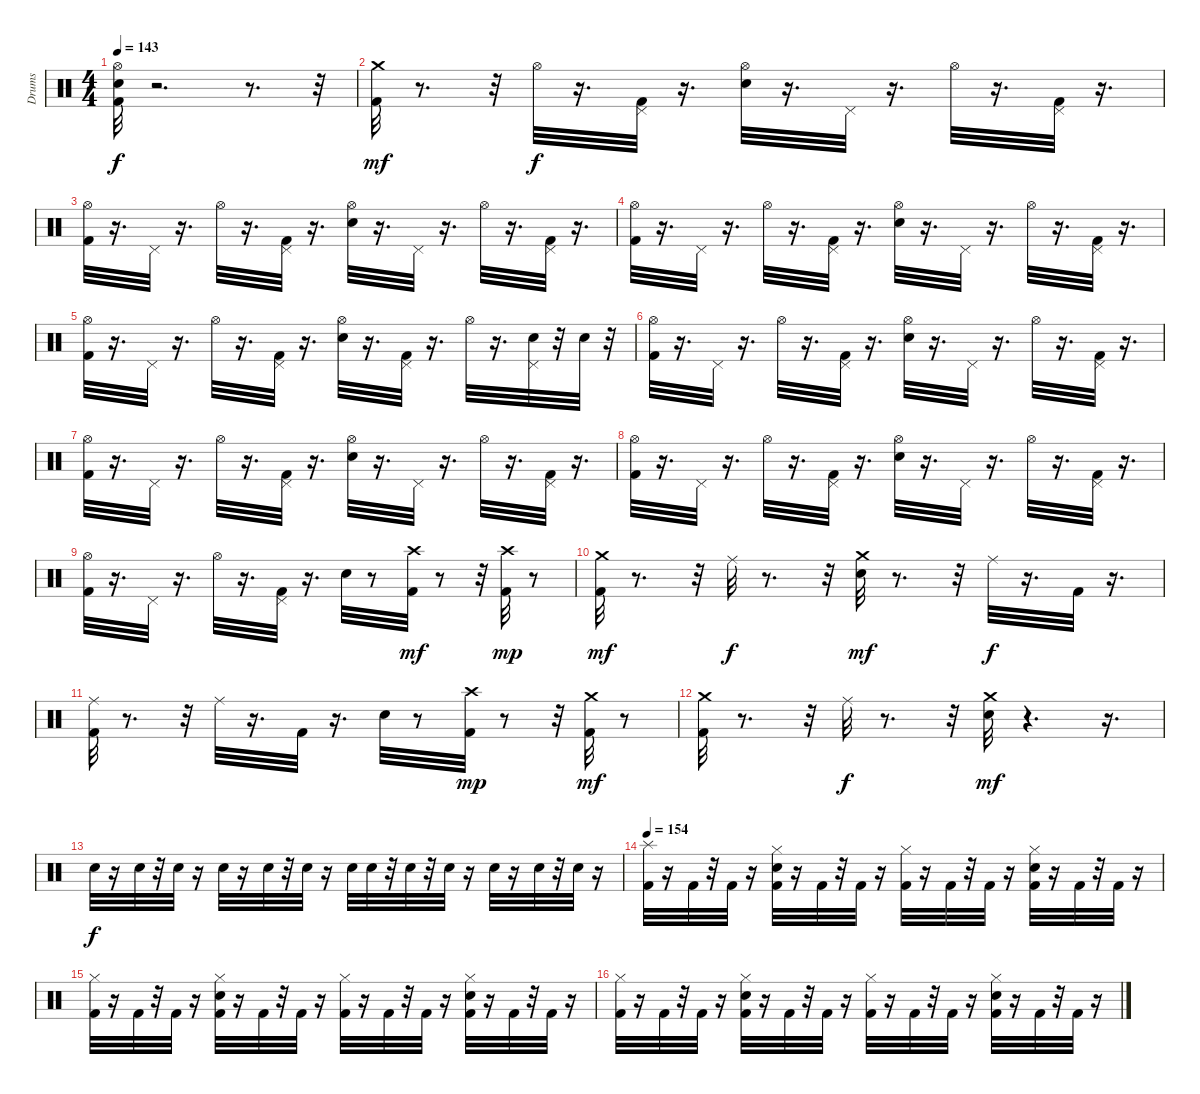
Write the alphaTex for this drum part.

\track ("Drums" "Drums") {instrument percussion}
\staff {score}
\articulation defaults
\ts (4 4)
\tempo 143
\clef neutral
\ks c
("Kick (hit) 2" "Snare (hit) 2" "Hi-Hat (open)").32{dy f} r.2{d} r.8{d} r.32 |
("Kick (hit) 2" "Crash medium (hit)").32{dy mf} r.8{d} r.32 "Hi-Hat (open)".32{dy f} r.16{d} ("Kick (hit) 2" "Pedal Hi-Hat (hit)").32 r.16{d} ("Snare (hit) 2" "Hi-Hat (open)").32 r.16{d} "Pedal Hi-Hat (hit)".32 r.16{d} "Hi-Hat (open)".32 r.16{d} ("Kick (hit) 2" "Pedal Hi-Hat (hit)").32 r.16{d} |
("Kick (hit) 2" "Hi-Hat (open)").32 r.16{d} "Pedal Hi-Hat (hit)".32 r.16{d} "Hi-Hat (open)".32 r.16{d} ("Kick (hit) 2" "Pedal Hi-Hat (hit)").32 r.16{d} ("Snare (hit) 2" "Hi-Hat (open)").32 r.16{d} "Pedal Hi-Hat (hit)".32 r.16{d} "Hi-Hat (open)".32 r.16{d} ("Kick (hit) 2" "Pedal Hi-Hat (hit)").32 r.16{d} |
("Kick (hit) 2" "Hi-Hat (open)").32 r.16{d} "Pedal Hi-Hat (hit)".32 r.16{d} "Hi-Hat (open)".32 r.16{d} ("Kick (hit) 2" "Pedal Hi-Hat (hit)").32 r.16{d} ("Snare (hit) 2" "Hi-Hat (open)").32 r.16{d} "Pedal Hi-Hat (hit)".32 r.16{d} "Hi-Hat (open)".32 r.16{d} ("Kick (hit) 2" "Pedal Hi-Hat (hit)").32 r.16{d} |
("Kick (hit) 2" "Hi-Hat (open)").32 r.16{d} "Pedal Hi-Hat (hit)".32 r.16{d} "Hi-Hat (open)".32 r.16{d} ("Kick (hit) 2" "Pedal Hi-Hat (hit)").32 r.16{d} ("Snare (hit) 2" "Hi-Hat (open)").32 r.16{d} ("Kick (hit) 2" "Pedal Hi-Hat (hit)").32 r.16{d} "Hi-Hat (open)".32 r.16{d} ("Snare (hit) 2" "Pedal Hi-Hat (hit)").32 r.32 "Snare (hit) 2".32 r.32 |
("Kick (hit) 2" "Hi-Hat (open)").32 r.16{d} "Pedal Hi-Hat (hit)".32 r.16{d} "Hi-Hat (open)".32 r.16{d} ("Kick (hit) 2" "Pedal Hi-Hat (hit)").32 r.16{d} ("Snare (hit) 2" "Hi-Hat (open)").32 r.16{d} "Pedal Hi-Hat (hit)".32 r.16{d} "Hi-Hat (open)".32 r.16{d} ("Kick (hit) 2" "Pedal Hi-Hat (hit)").32 r.16{d} |
("Kick (hit) 2" "Hi-Hat (open)").32 r.16{d} "Pedal Hi-Hat (hit)".32 r.16{d} "Hi-Hat (open)".32 r.16{d} ("Kick (hit) 2" "Pedal Hi-Hat (hit)").32 r.16{d} ("Snare (hit) 2" "Hi-Hat (open)").32 r.16{d} "Pedal Hi-Hat (hit)".32 r.16{d} "Hi-Hat (open)".32 r.16{d} ("Kick (hit) 2" "Pedal Hi-Hat (hit)").32 r.16{d} |
("Kick (hit) 2" "Hi-Hat (open)").32 r.16{d} "Pedal Hi-Hat (hit)".32 r.16{d} "Hi-Hat (open)".32 r.16{d} ("Kick (hit) 2" "Pedal Hi-Hat (hit)").32 r.16{d} ("Snare (hit) 2" "Hi-Hat (open)").32 r.16{d} "Pedal Hi-Hat (hit)".32 r.16{d} "Hi-Hat (open)".32 r.16{d} ("Kick (hit) 2" "Pedal Hi-Hat (hit)").32 r.16{d} |
("Kick (hit) 2" "Hi-Hat (open)").32 r.16{d} "Pedal Hi-Hat (hit)".32 r.16{d} "Hi-Hat (open)".32 r.16{d} ("Kick (hit) 2" "Pedal Hi-Hat (hit)").32 r.16{d} "Snare (hit) 2".32 r.8 ("Kick (hit) 2" "Crash high (hit)").32{dy mf} r.8 r.32 ("Kick (hit) 2" "Crash high (hit)").32{dy mp} r.8 |
("Kick (hit) 2" "Crash medium (hit)").32{dy mf} r.8{d} r.32 "Ride (middle)".32{dy f} r.8{d} r.32 ("Snare (hit) 2" "Crash medium (hit)").32{dy mf} r.8{d} r.32 "Ride (middle)".32{dy f} r.16{d} "Kick (hit) 2".32 r.16{d} |
("Kick (hit) 2" "Ride (middle)").32 r.8{d} r.32 "Ride (middle)".32 r.16{d} "Kick (hit) 2".32 r.16{d} "Snare (hit) 2".32 r.8 ("Kick (hit) 2" "Crash high (hit)").32{dy mp} r.8 r.32 ("Kick (hit) 2" "Crash medium (hit)").32{dy mf} r.8 |
("Kick (hit) 2" "Crash medium (hit)").32 r.8{d} r.32 "Ride (middle)".32{dy f} r.8{d} r.32 ("Snare (hit) 2" "Crash medium (hit)").32{dy mf} r.4{d} r.16{d} |
"Snare (hit) 2".32{dy f} r.16 "Snare (hit) 2".32 r.32 "Snare (hit) 2".32 r.16 "Snare (hit) 2".32 r.16 "Snare (hit) 2".32 r.32 "Snare (hit) 2".32 r.16 "Snare (hit) 2".32 "Snare (hit) 2".32 r.32 "Snare (hit) 2".32 r.32 "Snare (hit) 2".32 r.16 "Snare (hit) 2".32 r.16 "Snare (hit) 2".32 r.32 "Snare (hit) 2".32 r.16 |
\tempo 154
("Kick (hit) 2" "Splash (hit)").32 r.16 "Kick (hit) 2".32 r.32 "Kick (hit) 2".32 r.16 ("Kick (hit) 2" "Snare (hit) 2" "Hi-Hat (closed)").32 r.16 "Kick (hit) 2".32 r.32 "Kick (hit) 2".32 r.16 ("Kick (hit) 2" "Hi-Hat (closed)").32 r.16 "Kick (hit) 2".32 r.32 "Kick (hit) 2".32 r.16 ("Kick (hit) 2" "Snare (hit) 2" "Hi-Hat (closed)").32 r.16 "Kick (hit) 2".32 r.32 "Kick (hit) 2".32 r.16 |
("Kick (hit) 2" "Hi-Hat (closed)").32 r.16 "Kick (hit) 2".32 r.32 "Kick (hit) 2".32 r.16 ("Kick (hit) 2" "Snare (hit) 2" "Hi-Hat (closed)").32 r.16 "Kick (hit) 2".32 r.32 "Kick (hit) 2".32 r.16 ("Kick (hit) 2" "Hi-Hat (closed)").32 r.16 "Kick (hit) 2".32 r.32 "Kick (hit) 2".32 r.16 ("Kick (hit) 2" "Snare (hit) 2" "Hi-Hat (closed)").32 r.16 "Kick (hit) 2".32 r.32 "Kick (hit) 2".32 r.16 |
("Kick (hit) 2" "Hi-Hat (closed)").32 r.16 "Kick (hit) 2".32 r.32 "Kick (hit) 2".32 r.16 ("Kick (hit) 2" "Snare (hit) 2" "Hi-Hat (closed)").32 r.16 "Kick (hit) 2".32 r.32 "Kick (hit) 2".32 r.16 ("Kick (hit) 2" "Hi-Hat (closed)").32 r.16 "Kick (hit) 2".32 r.32 "Kick (hit) 2".32 r.16 ("Kick (hit) 2" "Snare (hit) 2" "Hi-Hat (closed)").32 r.16 "Kick (hit) 2".32 r.32 "Kick (hit) 2".32 r.16
